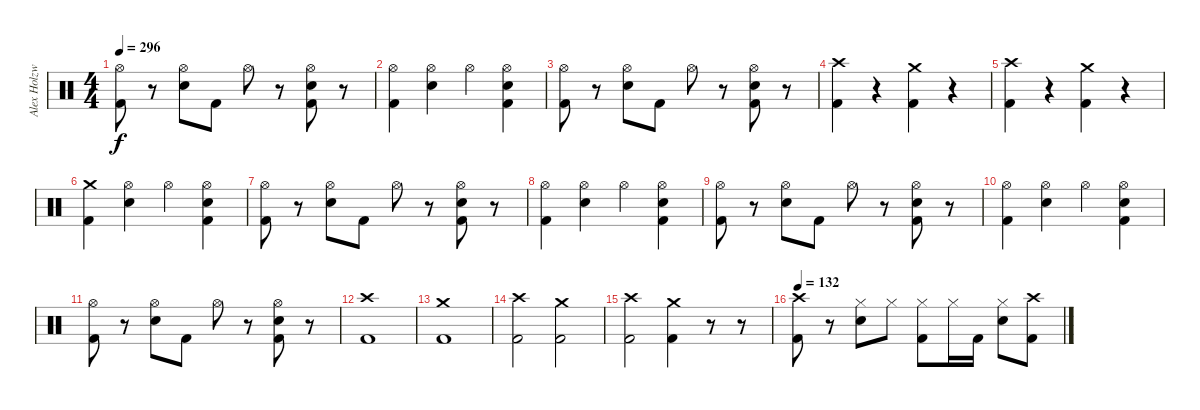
\track ("Alex Holzwarth" "Alex Holzw") {instrument percussion}
\staff {score}
\articulation defaults
\ts (4 4)
\tempo 296
\clef neutral
\ks c
("Hi-Hat (open)" "Kick (hit) 2").8{dy f} r.8 ("Hi-Hat (open)" "Snare (hit) 2").8 "Kick (hit) 2".8 "Hi-Hat (open)".8 r.8 ("Hi-Hat (open)" "Snare (hit) 2" "Kick (hit) 2").8 r.8 |
("Hi-Hat (open)" "Kick (hit) 2").4 ("Hi-Hat (open)" "Snare (hit) 2").4 "Hi-Hat (open)".4 ("Hi-Hat (open)" "Snare (hit) 2" "Kick (hit) 2").4 |
("Hi-Hat (open)" "Kick (hit) 2").8 r.8 ("Hi-Hat (open)" "Snare (hit) 2").8 "Kick (hit) 2".8 "Hi-Hat (open)".8 r.8 ("Hi-Hat (open)" "Snare (hit) 2" "Kick (hit) 2").8 r.8 |
("Crash high (hit)" "Kick (hit) 2").4 r.4 ("Crash medium (hit)" "Kick (hit) 2").4 r.4 |
("Crash high (hit)" "Kick (hit) 2").4 r.4 ("Crash medium (hit)" "Kick (hit) 2").4 r.4 |
("Crash medium (hit)" "Kick (hit) 2").4 ("Hi-Hat (open)" "Snare (hit) 2").4 "Hi-Hat (open)".4 ("Hi-Hat (open)" "Snare (hit) 2" "Kick (hit) 2").4 |
("Hi-Hat (open)" "Kick (hit) 2").8 r.8 ("Hi-Hat (open)" "Snare (hit) 2").8 "Kick (hit) 2".8 "Hi-Hat (open)".8 r.8 ("Hi-Hat (open)" "Snare (hit) 2" "Kick (hit) 2").8 r.8 |
("Hi-Hat (open)" "Kick (hit) 2").4 ("Hi-Hat (open)" "Snare (hit) 2").4 "Hi-Hat (open)".4 ("Hi-Hat (open)" "Snare (hit) 2" "Kick (hit) 2").4 |
("Hi-Hat (open)" "Kick (hit) 2").8 r.8 ("Hi-Hat (open)" "Snare (hit) 2").8 "Kick (hit) 2".8 "Hi-Hat (open)".8 r.8 ("Hi-Hat (open)" "Snare (hit) 2" "Kick (hit) 2").8 r.8 |
("Hi-Hat (open)" "Kick (hit) 2").4 ("Hi-Hat (open)" "Snare (hit) 2").4 "Hi-Hat (open)".4 ("Hi-Hat (open)" "Snare (hit) 2" "Kick (hit) 2").4 |
("Hi-Hat (open)" "Kick (hit) 2").8 r.8 ("Hi-Hat (open)" "Snare (hit) 2").8 "Kick (hit) 2".8 "Hi-Hat (open)".8 r.8 ("Hi-Hat (open)" "Snare (hit) 2" "Kick (hit) 2").8 r.8 |
("Crash high (hit)" "Kick (hit) 2").1 |
("Crash medium (hit)" "Kick (hit) 2").1 |
("Crash high (hit)" "Kick (hit) 2").2 ("Crash medium (hit)" "Kick (hit) 2").2 |
("Crash high (hit)" "Kick (hit) 2").2 ("Crash medium (hit)" "Kick (hit) 2").4 r.8 r.8 |
\tempo 132
("Crash high (hit)" "Kick (hit) 2").8 r.8 ("Hi-Hat (closed)" "Snare (hit) 2").8 "Hi-Hat (closed)".8 ("Hi-Hat (closed)" "Kick (hit) 2").8 "Hi-Hat (closed)".16 "Kick (hit) 2".16 ("Hi-Hat (closed)" "Snare (hit) 2").8 ("Crash high (hit)" "Kick (hit) 2").8
